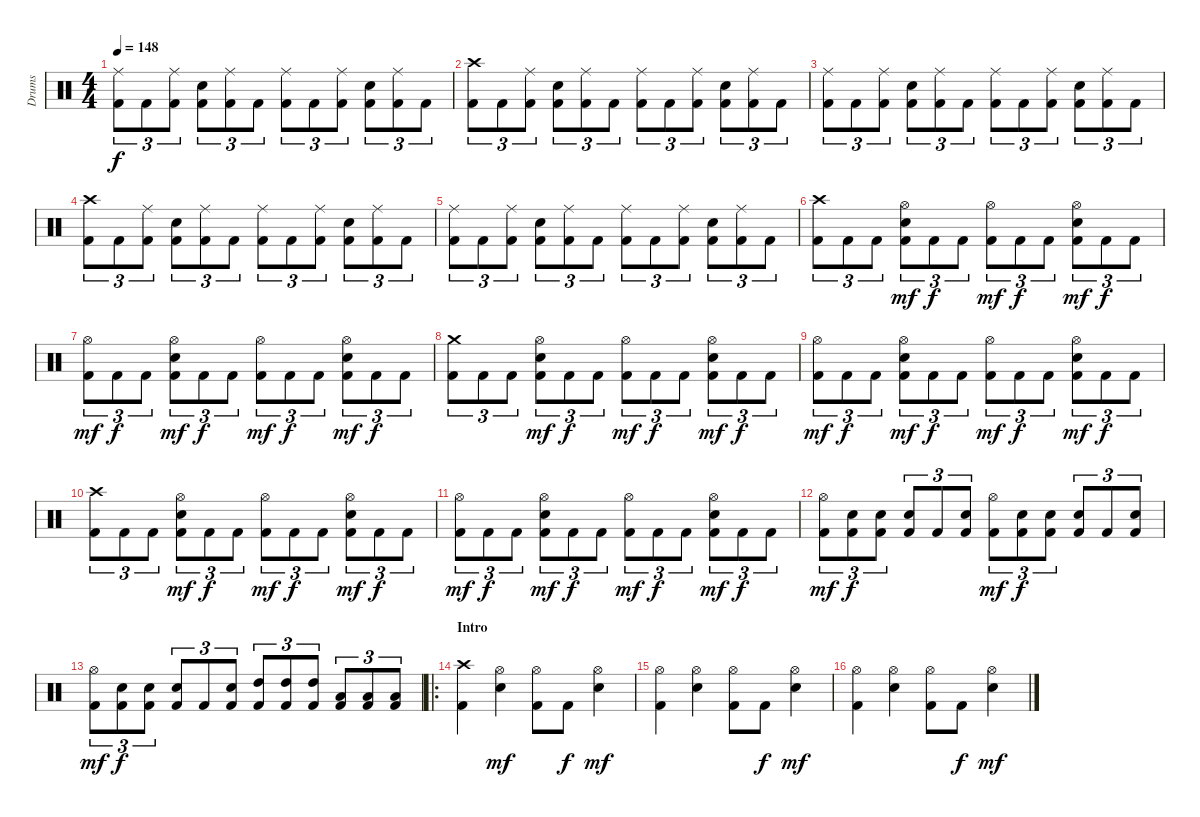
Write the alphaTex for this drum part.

\track ("Drums" "Drums") {instrument percussion}
\staff {score}
\articulation defaults
\ts (4 4)
\tempo 148
\clef neutral
\ks c
("Ride (middle)" "Kick (hit) 2").8{tu (3 2) dy f} "Kick (hit) 2".8{tu (3 2)} ("Ride (middle)" "Kick (hit) 2").8{tu (3 2)} ("Snare (hit) 2" "Kick (hit) 2").8{tu (3 2)} ("Ride (middle)" "Kick (hit) 2").8{tu (3 2)} "Kick (hit) 2".8{tu (3 2)} ("Ride (middle)" "Kick (hit) 2").8{tu (3 2)} "Kick (hit) 2".8{tu (3 2)} ("Ride (middle)" "Kick (hit) 2").8{tu (3 2)} ("Snare (hit) 2" "Kick (hit) 2").8{tu (3 2)} ("Ride (middle)" "Kick (hit) 2").8{tu (3 2)} "Kick (hit) 2".8{tu (3 2)} |
("Crash high (hit)" "Kick (hit) 2").8{tu (3 2)} "Kick (hit) 2".8{tu (3 2)} ("Ride (middle)" "Kick (hit) 2").8{tu (3 2)} ("Snare (hit) 2" "Kick (hit) 2").8{tu (3 2)} ("Ride (middle)" "Kick (hit) 2").8{tu (3 2)} "Kick (hit) 2".8{tu (3 2)} ("Ride (middle)" "Kick (hit) 2").8{tu (3 2)} "Kick (hit) 2".8{tu (3 2)} ("Ride (middle)" "Kick (hit) 2").8{tu (3 2)} ("Snare (hit) 2" "Kick (hit) 2").8{tu (3 2)} ("Ride (middle)" "Kick (hit) 2").8{tu (3 2)} "Kick (hit) 2".8{tu (3 2)} |
("Ride (middle)" "Kick (hit) 2").8{tu (3 2)} "Kick (hit) 2".8{tu (3 2)} ("Ride (middle)" "Kick (hit) 2").8{tu (3 2)} ("Snare (hit) 2" "Kick (hit) 2").8{tu (3 2)} ("Ride (middle)" "Kick (hit) 2").8{tu (3 2)} "Kick (hit) 2".8{tu (3 2)} ("Ride (middle)" "Kick (hit) 2").8{tu (3 2)} "Kick (hit) 2".8{tu (3 2)} ("Ride (middle)" "Kick (hit) 2").8{tu (3 2)} ("Snare (hit) 2" "Kick (hit) 2").8{tu (3 2)} ("Ride (middle)" "Kick (hit) 2").8{tu (3 2)} "Kick (hit) 2".8{tu (3 2)} |
("Crash high (hit)" "Kick (hit) 2").8{tu (3 2)} "Kick (hit) 2".8{tu (3 2)} ("Ride (middle)" "Kick (hit) 2").8{tu (3 2)} ("Snare (hit) 2" "Kick (hit) 2").8{tu (3 2)} ("Ride (middle)" "Kick (hit) 2").8{tu (3 2)} "Kick (hit) 2".8{tu (3 2)} ("Ride (middle)" "Kick (hit) 2").8{tu (3 2)} "Kick (hit) 2".8{tu (3 2)} ("Ride (middle)" "Kick (hit) 2").8{tu (3 2)} ("Snare (hit) 2" "Kick (hit) 2").8{tu (3 2)} ("Ride (middle)" "Kick (hit) 2").8{tu (3 2)} "Kick (hit) 2".8{tu (3 2)} |
("Ride (middle)" "Kick (hit) 2").8{tu (3 2)} "Kick (hit) 2".8{tu (3 2)} ("Ride (middle)" "Kick (hit) 2").8{tu (3 2)} ("Snare (hit) 2" "Kick (hit) 2").8{tu (3 2)} ("Ride (middle)" "Kick (hit) 2").8{tu (3 2)} "Kick (hit) 2".8{tu (3 2)} ("Ride (middle)" "Kick (hit) 2").8{tu (3 2)} "Kick (hit) 2".8{tu (3 2)} ("Ride (middle)" "Kick (hit) 2").8{tu (3 2)} ("Snare (hit) 2" "Kick (hit) 2").8{tu (3 2)} ("Ride (middle)" "Kick (hit) 2").8{tu (3 2)} "Kick (hit) 2".8{tu (3 2)} |
("Crash high (hit)" "Kick (hit) 2").8{tu (3 2)} "Kick (hit) 2".8{tu (3 2)} "Kick (hit) 2".8{tu (3 2)} ("Hi-Hat (open)" "Snare (hit) 2" "Kick (hit) 2").8{tu (3 2) dy mf} "Kick (hit) 2".8{tu (3 2) dy f} "Kick (hit) 2".8{tu (3 2)} ("Hi-Hat (open)" "Kick (hit) 2").8{tu (3 2) dy mf} "Kick (hit) 2".8{tu (3 2) dy f} "Kick (hit) 2".8{tu (3 2)} ("Hi-Hat (open)" "Snare (hit) 2" "Kick (hit) 2").8{tu (3 2) dy mf} "Kick (hit) 2".8{tu (3 2) dy f} "Kick (hit) 2".8{tu (3 2)} |
("Hi-Hat (open)" "Kick (hit) 2").8{tu (3 2) dy mf} "Kick (hit) 2".8{tu (3 2) dy f} "Kick (hit) 2".8{tu (3 2)} ("Hi-Hat (open)" "Snare (hit) 2" "Kick (hit) 2").8{tu (3 2) dy mf} "Kick (hit) 2".8{tu (3 2) dy f} "Kick (hit) 2".8{tu (3 2)} ("Hi-Hat (open)" "Kick (hit) 2").8{tu (3 2) dy mf} "Kick (hit) 2".8{tu (3 2) dy f} "Kick (hit) 2".8{tu (3 2)} ("Hi-Hat (open)" "Snare (hit) 2" "Kick (hit) 2").8{tu (3 2) dy mf} "Kick (hit) 2".8{tu (3 2) dy f} "Kick (hit) 2".8{tu (3 2)} |
("Crash medium (hit)" "Kick (hit) 2").8{tu (3 2)} "Kick (hit) 2".8{tu (3 2)} "Kick (hit) 2".8{tu (3 2)} ("Hi-Hat (open)" "Snare (hit) 2" "Kick (hit) 2").8{tu (3 2) dy mf} "Kick (hit) 2".8{tu (3 2) dy f} "Kick (hit) 2".8{tu (3 2)} ("Hi-Hat (open)" "Kick (hit) 2").8{tu (3 2) dy mf} "Kick (hit) 2".8{tu (3 2) dy f} "Kick (hit) 2".8{tu (3 2)} ("Hi-Hat (open)" "Snare (hit) 2" "Kick (hit) 2").8{tu (3 2) dy mf} "Kick (hit) 2".8{tu (3 2) dy f} "Kick (hit) 2".8{tu (3 2)} |
("Hi-Hat (open)" "Kick (hit) 2").8{tu (3 2) dy mf} "Kick (hit) 2".8{tu (3 2) dy f} "Kick (hit) 2".8{tu (3 2)} ("Hi-Hat (open)" "Snare (hit) 2" "Kick (hit) 2").8{tu (3 2) dy mf} "Kick (hit) 2".8{tu (3 2) dy f} "Kick (hit) 2".8{tu (3 2)} ("Hi-Hat (open)" "Kick (hit) 2").8{tu (3 2) dy mf} "Kick (hit) 2".8{tu (3 2) dy f} "Kick (hit) 2".8{tu (3 2)} ("Hi-Hat (open)" "Snare (hit) 2" "Kick (hit) 2").8{tu (3 2) dy mf} "Kick (hit) 2".8{tu (3 2) dy f} "Kick (hit) 2".8{tu (3 2)} |
("Crash high (hit)" "Kick (hit) 2").8{tu (3 2)} "Kick (hit) 2".8{tu (3 2)} "Kick (hit) 2".8{tu (3 2)} ("Hi-Hat (open)" "Snare (hit) 2" "Kick (hit) 2").8{tu (3 2) dy mf} "Kick (hit) 2".8{tu (3 2) dy f} "Kick (hit) 2".8{tu (3 2)} ("Hi-Hat (open)" "Kick (hit) 2").8{tu (3 2) dy mf} "Kick (hit) 2".8{tu (3 2) dy f} "Kick (hit) 2".8{tu (3 2)} ("Hi-Hat (open)" "Snare (hit) 2" "Kick (hit) 2").8{tu (3 2) dy mf} "Kick (hit) 2".8{tu (3 2) dy f} "Kick (hit) 2".8{tu (3 2)} |
("Hi-Hat (open)" "Kick (hit) 2").8{tu (3 2) dy mf} "Kick (hit) 2".8{tu (3 2) dy f} "Kick (hit) 2".8{tu (3 2)} ("Hi-Hat (open)" "Snare (hit) 2" "Kick (hit) 2").8{tu (3 2) dy mf} "Kick (hit) 2".8{tu (3 2) dy f} "Kick (hit) 2".8{tu (3 2)} ("Hi-Hat (open)" "Kick (hit) 2").8{tu (3 2) dy mf} "Kick (hit) 2".8{tu (3 2) dy f} "Kick (hit) 2".8{tu (3 2)} ("Hi-Hat (open)" "Snare (hit) 2" "Kick (hit) 2").8{tu (3 2) dy mf} "Kick (hit) 2".8{tu (3 2) dy f} "Kick (hit) 2".8{tu (3 2)} |
("Hi-Hat (open)" "Kick (hit) 2").8{tu (3 2) dy mf} ("Snare (hit) 2" "Kick (hit) 2").8{tu (3 2) dy f} ("Snare (hit) 2" "Kick (hit) 2").8{tu (3 2)} ("Snare (hit) 2" "Kick (hit) 2").8{tu (3 2)} "Kick (hit) 2".8{tu (3 2)} ("Snare (hit) 2" "Kick (hit) 2").8{tu (3 2)} ("Hi-Hat (open)" "Kick (hit) 2").8{tu (3 2) dy mf} ("Snare (hit) 2" "Kick (hit) 2").8{tu (3 2) dy f} ("Snare (hit) 2" "Kick (hit) 2").8{tu (3 2)} ("Snare (hit) 2" "Kick (hit) 2").8{tu (3 2)} "Kick (hit) 2".8{tu (3 2)} ("Snare (hit) 2" "Kick (hit) 2").8{tu (3 2)} |
("Hi-Hat (open)" "Kick (hit) 2").8{tu (3 2) dy mf} ("Snare (hit) 2" "Kick (hit) 2").8{tu (3 2) dy f} ("Snare (hit) 2" "Kick (hit) 2").8{tu (3 2)} ("Snare (hit) 2" "Kick (hit) 2").8{tu (3 2)} "Kick (hit) 2".8{tu (3 2)} ("Snare (hit) 2" "Kick (hit) 2").8{tu (3 2)} ("High Tom (hit)" "Kick (hit) 2").8{tu (3 2)} ("High Tom (hit)" "Kick (hit) 2").8{tu (3 2)} ("High Tom (hit)" "Kick (hit) 2").8{tu (3 2)} ("Low Tom (hit)" "Kick (hit) 2").8{tu (3 2)} ("Low Tom (hit)" "Kick (hit) 2").8{tu (3 2)} ("Low Tom (hit)" "Kick (hit) 2").8{tu (3 2)} |
\ro
\section ("" "Intro")
("Crash high (hit)" "Kick (hit) 2").4 ("Hi-Hat (open)" "Snare (hit) 2").4{dy mf} ("Hi-Hat (open)" "Kick (hit) 2").8 "Kick (hit) 2".8{dy f} ("Hi-Hat (open)" "Snare (hit) 2").4{dy mf} |
("Hi-Hat (open)" "Kick (hit) 2").4 ("Hi-Hat (open)" "Snare (hit) 2").4 ("Hi-Hat (open)" "Kick (hit) 2").8 "Kick (hit) 2".8{dy f} ("Hi-Hat (open)" "Snare (hit) 2").4{dy mf} |
("Hi-Hat (open)" "Kick (hit) 2").4 ("Hi-Hat (open)" "Snare (hit) 2").4 ("Hi-Hat (open)" "Kick (hit) 2").8 "Kick (hit) 2".8{dy f} ("Hi-Hat (open)" "Snare (hit) 2").4{dy mf}
